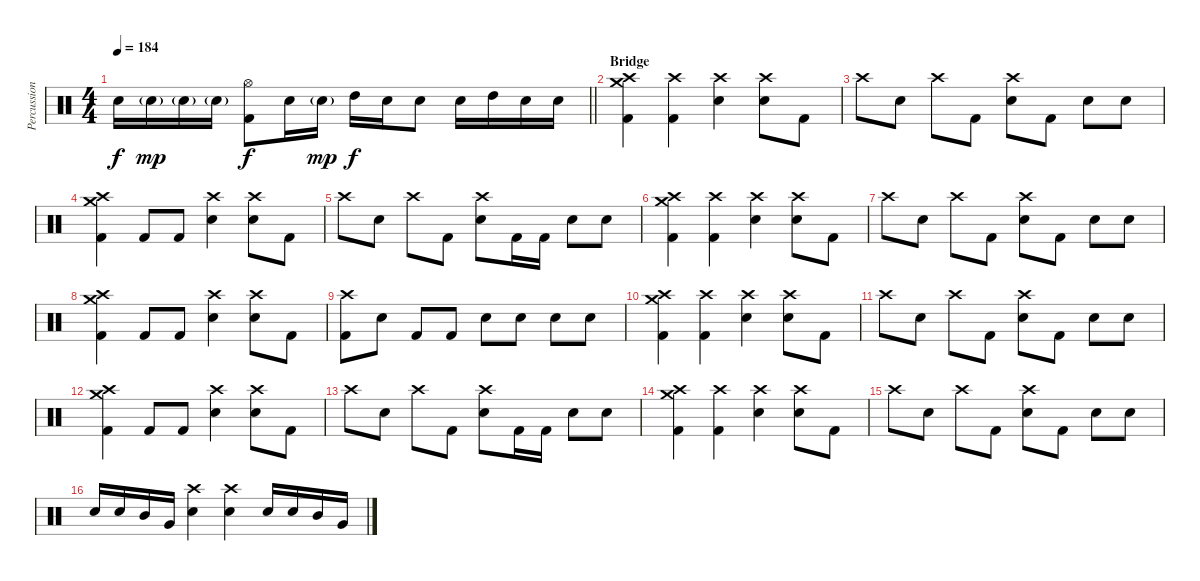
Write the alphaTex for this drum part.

\track ("Percussion" "Percussion") {instrument percussion}
\staff {score}
\articulation defaults
\ts (4 4)
\tempo 184
\clef neutral
\barLineRight lightlight
\ks c "Electric Snare (hit)".16{dy f} "Electric Snare (hit)"{g}.16{dy mp} "Electric Snare (hit)"{g}.16 "Electric Snare (hit)"{g}.16
("Hi-Hat (open)" "Kick (hit) 2").8{dy f} "Electric Snare (hit)".16 "Electric Snare (hit)"{g}.16{dy mp} "High Tom (hit)".16{dy f} "Electric Snare (hit)".16 "Electric Snare (hit)".8 "Electric Snare (hit)".16 "High Tom (hit)".16 "Electric Snare (hit)".16 "Electric Snare (hit)".16 |
\section ("" "Bridge")
("Crash high (hit)" "Crash medium (hit)" "Kick (hit) 2").4 ("Crash high (hit)" "Kick (hit) 2").4 ("Crash high (hit)" "Electric Snare (hit)").4 ("Crash high (hit)" "Electric Snare (hit)").8 "Kick (hit) 2".8 |
"Crash high (hit)".8 "Electric Snare (hit)".8 "Crash high (hit)".8 "Kick (hit) 2".8 ("Crash high (hit)" "Electric Snare (hit)").8 "Kick (hit) 2".8 "Electric Snare (hit)".8 "Electric Snare (hit)".8 |
("Crash high (hit)" "Crash medium (hit)" "Kick (hit) 2").4 "Kick (hit) 2".8 "Kick (hit) 2".8 ("Crash high (hit)" "Electric Snare (hit)").4 ("Crash high (hit)" "Electric Snare (hit)").8 "Kick (hit) 2".8 |
"Crash high (hit)".8 "Electric Snare (hit)".8 "Crash high (hit)".8 "Kick (hit) 2".8 ("Crash high (hit)" "Electric Snare (hit)").8 "Kick (hit) 2".16 "Kick (hit) 2".16 "Electric Snare (hit)".8 "Electric Snare (hit)".8 |
("Crash high (hit)" "Crash medium (hit)" "Kick (hit) 2").4 ("Crash high (hit)" "Kick (hit) 2").4 ("Crash high (hit)" "Electric Snare (hit)").4 ("Crash high (hit)" "Electric Snare (hit)").8 "Kick (hit) 2".8 |
"Crash high (hit)".8 "Electric Snare (hit)".8 "Crash high (hit)".8 "Kick (hit) 2".8 ("Crash high (hit)" "Electric Snare (hit)").8 "Kick (hit) 2".8 "Electric Snare (hit)".8 "Electric Snare (hit)".8 |
("Crash high (hit)" "Crash medium (hit)" "Kick (hit) 2").4 "Kick (hit) 2".8 "Kick (hit) 2".8 ("Crash high (hit)" "Electric Snare (hit)").4 ("Crash high (hit)" "Electric Snare (hit)").8 "Kick (hit) 2".8 |
("Crash high (hit)" "Kick (hit) 2").8 "Electric Snare (hit)".8 "Kick (hit) 2".8 "Kick (hit) 2".8 "Electric Snare (hit)".8 "Electric Snare (hit)".8 "Electric Snare (hit)".8 "Electric Snare (hit)".8 |
("Crash high (hit)" "Crash medium (hit)" "Kick (hit) 2").4 ("Crash high (hit)" "Kick (hit) 2").4 ("Crash high (hit)" "Electric Snare (hit)").4 ("Crash high (hit)" "Electric Snare (hit)").8 "Kick (hit) 2".8 |
"Crash high (hit)".8 "Electric Snare (hit)".8 "Crash high (hit)".8 "Kick (hit) 2".8 ("Crash high (hit)" "Electric Snare (hit)").8 "Kick (hit) 2".8 "Electric Snare (hit)".8 "Electric Snare (hit)".8 |
("Crash high (hit)" "Crash medium (hit)" "Kick (hit) 2").4 "Kick (hit) 2".8 "Kick (hit) 2".8 ("Crash high (hit)" "Electric Snare (hit)").4 ("Crash high (hit)" "Electric Snare (hit)").8 "Kick (hit) 2".8 |
"Crash high (hit)".8 "Electric Snare (hit)".8 "Crash high (hit)".8 "Kick (hit) 2".8 ("Crash high (hit)" "Electric Snare (hit)").8 "Kick (hit) 2".16 "Kick (hit) 2".16 "Electric Snare (hit)".8 "Electric Snare (hit)".8 |
("Crash high (hit)" "Crash medium (hit)" "Kick (hit) 2").4 ("Crash high (hit)" "Kick (hit) 2").4 ("Crash high (hit)" "Electric Snare (hit)").4 ("Crash high (hit)" "Electric Snare (hit)").8 "Kick (hit) 2".8 |
"Crash high (hit)".8 "Electric Snare (hit)".8 "Crash high (hit)".8 "Kick (hit) 2".8 ("Crash high (hit)" "Electric Snare (hit)").8 "Kick (hit) 2".8 "Electric Snare (hit)".8 "Electric Snare (hit)".8 |
"Electric Snare (hit)".16 "Electric Snare (hit)".16 "Mid Tom (hit)".16 "Very Low Tom (hit)".16 ("Crash high (hit)" "Electric Snare (hit)").4 ("Crash high (hit)" "Electric Snare (hit)").4 "Electric Snare (hit)".16 "Electric Snare (hit)".16 "Mid Tom (hit)".16 "Very Low Tom (hit)".16
